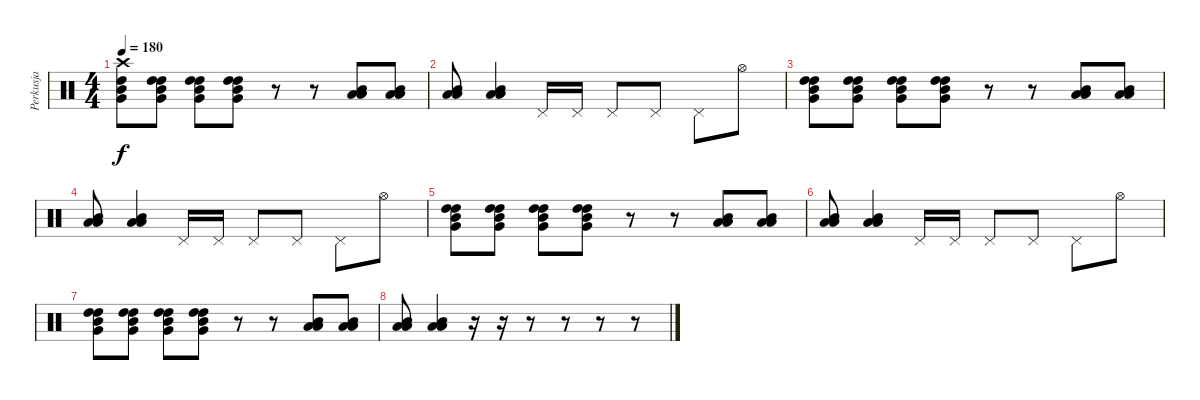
\track ("Perkusja" "Perkusja") {instrument percussion}
\staff {score}
\articulation defaults
\ts (4 4)
\tempo 180
\clef neutral
\ks c
("Crash high (hit)" "High Tom (hit)" "Mid Tom (hit)" "Very Low Tom (hit)").8{dy f} ("High Tom (hit)" "High Tom (hit)" "Mid Tom (hit)" "Very Low Tom (hit)").8 ("High Tom (hit)" "High Tom (hit)" "Mid Tom (hit)" "Very Low Tom (hit)").8 ("High Tom (hit)" "High Tom (hit)" "Mid Tom (hit)" "Very Low Tom (hit)").8 r.8 r.8 ("Low Floor Tom (hit)" "Low Floor Tom (hit)" "Mid Tom (hit)").8 ("Low Floor Tom (hit)" "Low Floor Tom (hit)" "Mid Tom (hit)").8 |
("Low Floor Tom (hit)" "Low Floor Tom (hit)" "Mid Tom (hit)").8 ("Low Floor Tom (hit)" "Low Floor Tom (hit)" "Mid Tom (hit)").4 "Pedal Hi-Hat (hit)".16 "Pedal Hi-Hat (hit)".16 "Pedal Hi-Hat (hit)".8 "Pedal Hi-Hat (hit)".8 "Pedal Hi-Hat (hit)".8 "Hi-Hat (open)".8 |
("High Tom (hit)" "High Tom (hit)" "Mid Tom (hit)" "Very Low Tom (hit)").8 ("High Tom (hit)" "High Tom (hit)" "Mid Tom (hit)" "Very Low Tom (hit)").8 ("High Tom (hit)" "High Tom (hit)" "Mid Tom (hit)" "Very Low Tom (hit)").8 ("High Tom (hit)" "High Tom (hit)" "Mid Tom (hit)" "Very Low Tom (hit)").8 r.8 r.8 ("Low Floor Tom (hit)" "Low Floor Tom (hit)" "Mid Tom (hit)").8 ("Low Floor Tom (hit)" "Low Floor Tom (hit)" "Mid Tom (hit)").8 |
("Low Floor Tom (hit)" "Low Floor Tom (hit)" "Mid Tom (hit)").8 ("Low Floor Tom (hit)" "Low Floor Tom (hit)" "Mid Tom (hit)").4 "Pedal Hi-Hat (hit)".16 "Pedal Hi-Hat (hit)".16 "Pedal Hi-Hat (hit)".8 "Pedal Hi-Hat (hit)".8 "Pedal Hi-Hat (hit)".8 "Hi-Hat (open)".8 |
("High Tom (hit)" "High Tom (hit)" "Mid Tom (hit)" "Very Low Tom (hit)").8 ("High Tom (hit)" "High Tom (hit)" "Mid Tom (hit)" "Very Low Tom (hit)").8 ("High Tom (hit)" "High Tom (hit)" "Mid Tom (hit)" "Very Low Tom (hit)").8 ("High Tom (hit)" "High Tom (hit)" "Mid Tom (hit)" "Very Low Tom (hit)").8 r.8 r.8 ("Low Floor Tom (hit)" "Low Floor Tom (hit)" "Mid Tom (hit)").8 ("Low Floor Tom (hit)" "Low Floor Tom (hit)" "Mid Tom (hit)").8 |
("Low Floor Tom (hit)" "Low Floor Tom (hit)" "Mid Tom (hit)").8 ("Low Floor Tom (hit)" "Low Floor Tom (hit)" "Mid Tom (hit)").4 "Pedal Hi-Hat (hit)".16 "Pedal Hi-Hat (hit)".16 "Pedal Hi-Hat (hit)".8 "Pedal Hi-Hat (hit)".8 "Pedal Hi-Hat (hit)".8 "Hi-Hat (open)".8 |
("High Tom (hit)" "High Tom (hit)" "Mid Tom (hit)" "Very Low Tom (hit)").8 ("High Tom (hit)" "High Tom (hit)" "Mid Tom (hit)" "Very Low Tom (hit)").8 ("High Tom (hit)" "High Tom (hit)" "Mid Tom (hit)" "Very Low Tom (hit)").8 ("High Tom (hit)" "High Tom (hit)" "Mid Tom (hit)" "Very Low Tom (hit)").8 r.8 r.8 ("Low Floor Tom (hit)" "Low Floor Tom (hit)" "Mid Tom (hit)").8 ("Low Floor Tom (hit)" "Low Floor Tom (hit)" "Mid Tom (hit)").8 |
("Low Floor Tom (hit)" "Low Floor Tom (hit)" "Mid Tom (hit)").8 ("Low Floor Tom (hit)" "Low Floor Tom (hit)" "Mid Tom (hit)").4 r.16 r.16 r.8 r.8 r.8 r.8
